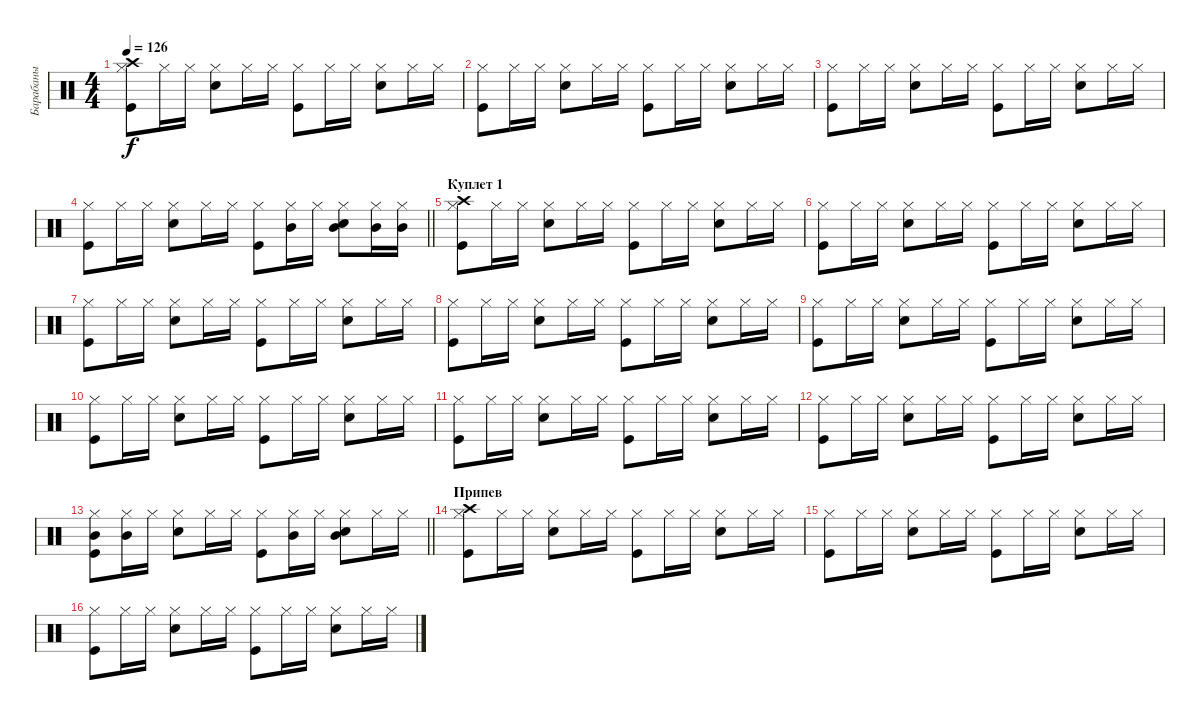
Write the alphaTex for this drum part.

\track ("Барабаны" "Барабаны") {instrument percussion}
\staff {score}
\articulation defaults
\ts (4 4)
\tempo 126
\clef neutral
\ks c
("Kick (hit)" "Hi-Hat (closed)" "Crash high (hit)").8{dy f} "Hi-Hat (closed)".16 "Hi-Hat (closed)".16 ("Snare (hit) 2" "Hi-Hat (closed)").8 "Hi-Hat (closed)".16 "Hi-Hat (closed)".16 ("Kick (hit)" "Hi-Hat (closed)").8 "Hi-Hat (closed)".16 "Hi-Hat (closed)".16 ("Snare (hit) 2" "Hi-Hat (closed)").8 "Hi-Hat (closed)".16 "Hi-Hat (closed)".16 |
("Kick (hit)" "Hi-Hat (closed)").8 "Hi-Hat (closed)".16 "Hi-Hat (closed)".16 ("Snare (hit) 2" "Hi-Hat (closed)").8 "Hi-Hat (closed)".16 "Hi-Hat (closed)".16 ("Kick (hit)" "Hi-Hat (closed)").8 "Hi-Hat (closed)".16 "Hi-Hat (closed)".16 ("Snare (hit) 2" "Hi-Hat (closed)").8 "Hi-Hat (closed)".16 "Hi-Hat (closed)".16 |
("Kick (hit)" "Hi-Hat (closed)").8 "Hi-Hat (closed)".16 "Hi-Hat (closed)".16 ("Snare (hit) 2" "Hi-Hat (closed)").8 "Hi-Hat (closed)".16 "Hi-Hat (closed)".16 ("Kick (hit)" "Hi-Hat (closed)").8 "Hi-Hat (closed)".16 "Hi-Hat (closed)".16 ("Snare (hit) 2" "Hi-Hat (closed)").8 "Hi-Hat (closed)".16 "Hi-Hat (closed)".16 |
\barLineRight lightlight
("Kick (hit)" "Hi-Hat (closed)").8 "Hi-Hat (closed)".16 "Hi-Hat (closed)".16 ("Snare (hit) 2" "Hi-Hat (closed)").8 "Hi-Hat (closed)".16 "Hi-Hat (closed)".16 ("Kick (hit)" "Hi-Hat (closed)").8 ("Hi-Hat (closed)" "Mid Tom (hit)").16 "Hi-Hat (closed)".16 ("Snare (hit) 2" "Hi-Hat (closed)" "Mid Tom (hit)").8 ("Hi-Hat (closed)" "Mid Tom (hit)").16 ("Hi-Hat (closed)" "Mid Tom (hit)").16 |
\section ("" "Куплет 1")
("Kick (hit)" "Hi-Hat (closed)" "Crash high (hit)").8 "Hi-Hat (closed)".16 "Hi-Hat (closed)".16 ("Snare (hit) 2" "Hi-Hat (closed)").8 "Hi-Hat (closed)".16 "Hi-Hat (closed)".16 ("Kick (hit)" "Hi-Hat (closed)").8 "Hi-Hat (closed)".16 "Hi-Hat (closed)".16 ("Snare (hit) 2" "Hi-Hat (closed)").8 "Hi-Hat (closed)".16 "Hi-Hat (closed)".16 |
("Kick (hit)" "Hi-Hat (closed)").8 "Hi-Hat (closed)".16 "Hi-Hat (closed)".16 ("Snare (hit) 2" "Hi-Hat (closed)").8 "Hi-Hat (closed)".16 "Hi-Hat (closed)".16 ("Kick (hit)" "Hi-Hat (closed)").8 "Hi-Hat (closed)".16 "Hi-Hat (closed)".16 ("Snare (hit) 2" "Hi-Hat (closed)").8 "Hi-Hat (closed)".16 "Hi-Hat (closed)".16 |
("Kick (hit)" "Hi-Hat (closed)").8 "Hi-Hat (closed)".16 "Hi-Hat (closed)".16 ("Snare (hit) 2" "Hi-Hat (closed)").8 "Hi-Hat (closed)".16 "Hi-Hat (closed)".16 ("Kick (hit)" "Hi-Hat (closed)").8 "Hi-Hat (closed)".16 "Hi-Hat (closed)".16 ("Snare (hit) 2" "Hi-Hat (closed)").8 "Hi-Hat (closed)".16 "Hi-Hat (closed)".16 |
("Kick (hit)" "Hi-Hat (closed)").8 "Hi-Hat (closed)".16 "Hi-Hat (closed)".16 ("Snare (hit) 2" "Hi-Hat (closed)").8 "Hi-Hat (closed)".16 "Hi-Hat (closed)".16 ("Kick (hit)" "Hi-Hat (closed)").8 "Hi-Hat (closed)".16 "Hi-Hat (closed)".16 ("Snare (hit) 2" "Hi-Hat (closed)").8 "Hi-Hat (closed)".16 "Hi-Hat (closed)".16 |
("Kick (hit)" "Hi-Hat (closed)").8 "Hi-Hat (closed)".16 "Hi-Hat (closed)".16 ("Snare (hit) 2" "Hi-Hat (closed)").8 "Hi-Hat (closed)".16 "Hi-Hat (closed)".16 ("Kick (hit)" "Hi-Hat (closed)").8 "Hi-Hat (closed)".16 "Hi-Hat (closed)".16 ("Snare (hit) 2" "Hi-Hat (closed)").8 "Hi-Hat (closed)".16 "Hi-Hat (closed)".16 |
("Kick (hit)" "Hi-Hat (closed)").8 "Hi-Hat (closed)".16 "Hi-Hat (closed)".16 ("Snare (hit) 2" "Hi-Hat (closed)").8 "Hi-Hat (closed)".16 "Hi-Hat (closed)".16 ("Kick (hit)" "Hi-Hat (closed)").8 "Hi-Hat (closed)".16 "Hi-Hat (closed)".16 ("Snare (hit) 2" "Hi-Hat (closed)").8 "Hi-Hat (closed)".16 "Hi-Hat (closed)".16 |
("Kick (hit)" "Hi-Hat (closed)").8 "Hi-Hat (closed)".16 "Hi-Hat (closed)".16 ("Snare (hit) 2" "Hi-Hat (closed)").8 "Hi-Hat (closed)".16 "Hi-Hat (closed)".16 ("Kick (hit)" "Hi-Hat (closed)").8 "Hi-Hat (closed)".16 "Hi-Hat (closed)".16 ("Snare (hit) 2" "Hi-Hat (closed)").8 "Hi-Hat (closed)".16 "Hi-Hat (closed)".16 |
("Kick (hit)" "Hi-Hat (closed)").8 "Hi-Hat (closed)".16 "Hi-Hat (closed)".16 ("Snare (hit) 2" "Hi-Hat (closed)").8 "Hi-Hat (closed)".16 "Hi-Hat (closed)".16 ("Kick (hit)" "Hi-Hat (closed)").8 "Hi-Hat (closed)".16 "Hi-Hat (closed)".16 ("Snare (hit) 2" "Hi-Hat (closed)").8 "Hi-Hat (closed)".16 "Hi-Hat (closed)".16 |
\barLineRight lightlight
("Kick (hit)" "Hi-Hat (closed)" "Mid Tom (hit)").8 ("Hi-Hat (closed)" "Mid Tom (hit)").16 "Hi-Hat (closed)".16 ("Snare (hit) 2" "Hi-Hat (closed)").8 "Hi-Hat (closed)".16 "Hi-Hat (closed)".16 ("Kick (hit)" "Hi-Hat (closed)").8 ("Hi-Hat (closed)" "Mid Tom (hit)").16 "Hi-Hat (closed)".16 ("Snare (hit) 2" "Hi-Hat (closed)" "Mid Tom (hit)").8 "Hi-Hat (closed)".16 "Hi-Hat (closed)".16 |
\section ("" "Припев")
("Kick (hit)" "Hi-Hat (closed)" "Crash high (hit)").8 "Hi-Hat (closed)".16 "Hi-Hat (closed)".16 ("Snare (hit) 2" "Hi-Hat (closed)").8 "Hi-Hat (closed)".16 "Hi-Hat (closed)".16 ("Kick (hit)" "Hi-Hat (closed)").8 "Hi-Hat (closed)".16 "Hi-Hat (closed)".16 ("Snare (hit) 2" "Hi-Hat (closed)").8 "Hi-Hat (closed)".16 "Hi-Hat (closed)".16 |
("Kick (hit)" "Hi-Hat (closed)").8 "Hi-Hat (closed)".16 "Hi-Hat (closed)".16 ("Snare (hit) 2" "Hi-Hat (closed)").8 "Hi-Hat (closed)".16 "Hi-Hat (closed)".16 ("Kick (hit)" "Hi-Hat (closed)").8 "Hi-Hat (closed)".16 "Hi-Hat (closed)".16 ("Snare (hit) 2" "Hi-Hat (closed)").8 "Hi-Hat (closed)".16 "Hi-Hat (closed)".16 |
("Kick (hit)" "Hi-Hat (closed)").8 "Hi-Hat (closed)".16 "Hi-Hat (closed)".16 ("Snare (hit) 2" "Hi-Hat (closed)").8 "Hi-Hat (closed)".16 "Hi-Hat (closed)".16 ("Kick (hit)" "Hi-Hat (closed)").8 "Hi-Hat (closed)".16 "Hi-Hat (closed)".16 ("Snare (hit) 2" "Hi-Hat (closed)").8 "Hi-Hat (closed)".16 "Hi-Hat (closed)".16
